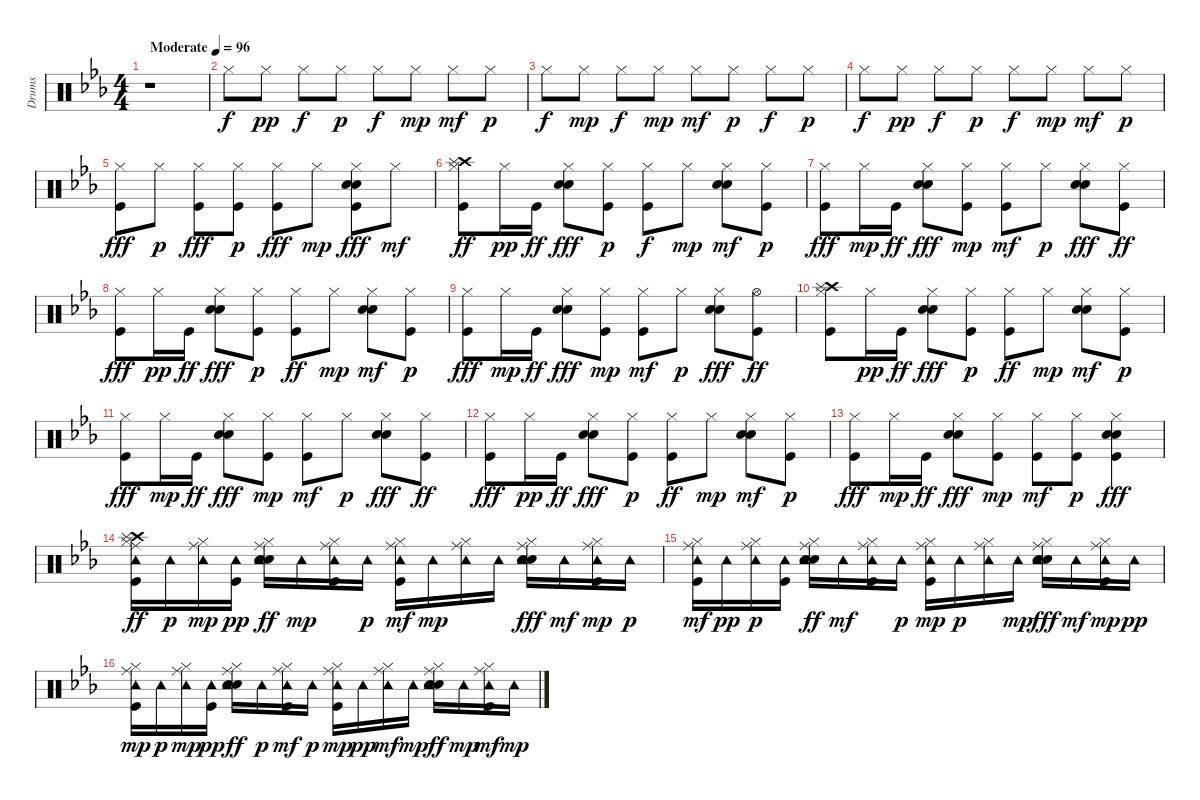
\track ("Drums" "Drums") {instrument percussion}
\staff {score}
\articulation defaults
\ts (4 4)
\tempo (96 "Moderate")
\clef neutral
\ks eb
r.1{dy f} |
"Hi-Hat (closed)".8 "Hi-Hat (closed)".8{dy pp} "Hi-Hat (closed)".8{dy f} "Hi-Hat (closed)".8{dy p} "Hi-Hat (closed)".8{dy f} "Hi-Hat (closed)".8{dy mp} "Hi-Hat (closed)".8{dy mf} "Hi-Hat (closed)".8{dy p} |
"Hi-Hat (closed)".8{dy f} "Hi-Hat (closed)".8{dy mp} "Hi-Hat (closed)".8{dy f} "Hi-Hat (closed)".8{dy mp} "Hi-Hat (closed)".8{dy mf} "Hi-Hat (closed)".8{dy p} "Hi-Hat (closed)".8{dy f} "Hi-Hat (closed)".8{dy p} |
"Hi-Hat (closed)".8{dy f} "Hi-Hat (closed)".8{dy pp} "Hi-Hat (closed)".8{dy f} "Hi-Hat (closed)".8{dy p} "Hi-Hat (closed)".8{dy f} "Hi-Hat (closed)".8{dy mp} "Hi-Hat (closed)".8{dy mf} "Hi-Hat (closed)".8{dy p} |
("Kick (hit)" "Hi-Hat (closed)").8{dy fff} "Hi-Hat (closed)".8{dy p} ("Kick (hit)" "Hi-Hat (closed)").8{dy fff} ("Kick (hit)" "Hi-Hat (closed)").8{dy p} ("Kick (hit)" "Hi-Hat (closed)").8{dy fff} "Hi-Hat (closed)".8{dy mp} ("Kick (hit)" "Snare (hit) 2" "Hand Clap (hit)" "Hi-Hat (closed)").8{dy fff} "Hi-Hat (closed)".8{dy mf} |
("Kick (hit)" "Hi-Hat (closed)" "Crash high (hit)" "Splash (hit)").8{dy ff} "Hi-Hat (closed)".16{dy pp} "Kick (hit)".16{dy ff} ("Snare (hit) 2" "Hand Clap (hit)" "Hi-Hat (closed)").8{dy fff} ("Kick (hit)" "Hi-Hat (closed)").8{dy p} ("Kick (hit)" "Hi-Hat (closed)").8{dy f} "Hi-Hat (closed)".8{dy mp} ("Snare (hit) 2" "Hand Clap (hit)" "Hi-Hat (closed)").8{dy mf} ("Kick (hit)" "Hi-Hat (closed)").8{dy p} |
("Kick (hit)" "Hi-Hat (closed)").8{dy fff} "Hi-Hat (closed)".16{dy mp} "Kick (hit)".16{dy ff} ("Snare (hit) 2" "Hand Clap (hit)" "Hi-Hat (closed)").8{dy fff} ("Kick (hit)" "Hi-Hat (closed)").8{dy mp} ("Kick (hit)" "Hi-Hat (closed)").8{dy mf} "Hi-Hat (closed)".8{dy p} ("Snare (hit) 2" "Hand Clap (hit)" "Hi-Hat (closed)").8{dy fff} ("Kick (hit)" "Hi-Hat (closed)").8{dy ff} |
("Kick (hit)" "Hi-Hat (closed)").8{dy fff} "Hi-Hat (closed)".16{dy pp} "Kick (hit)".16{dy ff} ("Snare (hit) 2" "Hand Clap (hit)" "Hi-Hat (closed)").8{dy fff} ("Kick (hit)" "Hi-Hat (closed)").8{dy p} ("Kick (hit)" "Hi-Hat (closed)").8{dy ff} "Hi-Hat (closed)".8{dy mp} ("Snare (hit) 2" "Hand Clap (hit)" "Hi-Hat (closed)").8{dy mf} ("Kick (hit)" "Hi-Hat (closed)").8{dy p} |
("Kick (hit)" "Hi-Hat (closed)").8{dy fff} "Hi-Hat (closed)".16{dy mp} "Kick (hit)".16{dy ff} ("Snare (hit) 2" "Hand Clap (hit)" "Hi-Hat (closed)").8{dy fff} ("Kick (hit)" "Hi-Hat (closed)").8{dy mp} ("Kick (hit)" "Hi-Hat (closed)").8{dy mf} "Hi-Hat (closed)".8{dy p} ("Snare (hit) 2" "Hand Clap (hit)" "Hi-Hat (closed)").8{dy fff} ("Kick (hit)" "Hi-Hat (open)").8{dy ff} |
("Kick (hit)" "Hi-Hat (closed)" "Crash high (hit)" "Splash (hit)").8 "Hi-Hat (closed)".16{dy pp} "Kick (hit)".16{dy ff} ("Snare (hit) 2" "Hand Clap (hit)" "Hi-Hat (closed)").8{dy fff} ("Kick (hit)" "Hi-Hat (closed)").8{dy p} ("Kick (hit)" "Hi-Hat (closed)").8{dy ff} "Hi-Hat (closed)".8{dy mp} ("Snare (hit) 2" "Hand Clap (hit)" "Hi-Hat (closed)").8{dy mf} ("Kick (hit)" "Hi-Hat (closed)").8{dy p} |
("Kick (hit)" "Hi-Hat (closed)").8{dy fff} "Hi-Hat (closed)".16{dy mp} "Kick (hit)".16{dy ff} ("Snare (hit) 2" "Hand Clap (hit)" "Hi-Hat (closed)").8{dy fff} ("Kick (hit)" "Hi-Hat (closed)").8{dy mp} ("Kick (hit)" "Hi-Hat (closed)").8{dy mf} "Hi-Hat (closed)".8{dy p} ("Snare (hit) 2" "Hand Clap (hit)" "Hi-Hat (closed)").8{dy fff} ("Kick (hit)" "Hi-Hat (closed)").8{dy ff} |
("Kick (hit)" "Hi-Hat (closed)").8{dy fff} "Hi-Hat (closed)".16{dy pp} "Kick (hit)".16{dy ff} ("Snare (hit) 2" "Hand Clap (hit)" "Hi-Hat (closed)").8{dy fff} ("Kick (hit)" "Hi-Hat (closed)").8{dy p} ("Kick (hit)" "Hi-Hat (closed)").8{dy ff} "Hi-Hat (closed)".8{dy mp} ("Snare (hit) 2" "Hand Clap (hit)" "Hi-Hat (closed)").8{dy mf} ("Kick (hit)" "Hi-Hat (closed)").8{dy p} |
("Kick (hit)" "Hi-Hat (closed)").8{dy fff} "Hi-Hat (closed)".16{dy mp} "Kick (hit)".16{dy ff} ("Snare (hit) 2" "Hand Clap (hit)" "Hi-Hat (closed)").8{dy fff} ("Kick (hit)" "Hi-Hat (closed)").8{dy mp} ("Kick (hit)" "Hi-Hat (closed)").8{dy mf} ("Kick (hit)" "Hi-Hat (closed)").8{dy p} ("Kick (hit)" "Snare (hit) 2" "Hand Clap (hit)" "Hi-Hat (closed)").4{dy fff} |
("Kick (hit)" "Hi-Hat (closed)" "Crash high (hit)" "Ride (middle)" "Tambourine (hit)" "Splash (hit)").16{dy ff} "Tambourine (hit)".16{dy p} ("Hi-Hat (closed)" "Ride (middle)" "Tambourine (hit)").16{dy mp} ("Kick (hit)" "Tambourine (hit)").16{dy pp} ("Snare (hit) 2" "Hand Clap (hit)" "Hi-Hat (closed)" "Ride (middle)" "Tambourine (hit)").16{dy ff} "Tambourine (hit)".16{dy mp} ("Kick (hit)" "Hi-Hat (closed)" "Ride (middle)" "Tambourine (hit)").16 "Tambourine (hit)".16{dy p} ("Kick (hit)" "Hi-Hat (closed)" "Ride (middle)" "Tambourine (hit)").16{dy mf} "Tambourine (hit)".16{dy mp} ("Hi-Hat (closed)" "Ride (middle)" "Tambourine (hit)").16 "Tambourine (hit)".16 ("Snare (hit) 2" "Hand Clap (hit)" "Hi-Hat (closed)" "Ride (middle)" "Tambourine (hit)").16{dy fff} "Tambourine (hit)".16{dy mf} ("Kick (hit)" "Hi-Hat (closed)" "Ride (middle)" "Tambourine (hit)").16{dy mp} "Tambourine (hit)".16{dy p} |
("Kick (hit)" "Hi-Hat (closed)" "Ride (middle)" "Tambourine (hit)").16{dy mf} "Tambourine (hit)".16{dy pp} ("Hi-Hat (closed)" "Ride (middle)" "Tambourine (hit)").16{dy p} ("Kick (hit)" "Tambourine (hit)").16 ("Snare (hit) 2" "Hand Clap (hit)" "Hi-Hat (closed)" "Ride (middle)" "Tambourine (hit)").16{dy ff} "Tambourine (hit)".16{dy mf} ("Kick (hit)" "Hi-Hat (closed)" "Ride (middle)" "Tambourine (hit)").16 "Tambourine (hit)".16{dy p} ("Kick (hit)" "Hi-Hat (closed)" "Ride (middle)" "Tambourine (hit)").16{dy mp} "Tambourine (hit)".16{dy p} ("Hi-Hat (closed)" "Ride (middle)" "Tambourine (hit)").16 "Tambourine (hit)".16{dy mp} ("Snare (hit) 2" "Hand Clap (hit)" "Hi-Hat (closed)" "Ride (middle)" "Tambourine (hit)").16{dy fff} "Tambourine (hit)".16{dy mf} ("Kick (hit)" "Hi-Hat (closed)" "Ride (middle)" "Tambourine (hit)").16{dy mp} "Tambourine (hit)".16{dy pp} |
("Kick (hit)" "Hi-Hat (closed)" "Ride (middle)" "Tambourine (hit)").16{dy mp} "Tambourine (hit)".16{dy p} ("Hi-Hat (closed)" "Ride (middle)" "Tambourine (hit)").16{dy mp} ("Kick (hit)" "Tambourine (hit)").16{dy pp} ("Snare (hit) 2" "Hand Clap (hit)" "Hi-Hat (closed)" "Ride (middle)" "Tambourine (hit)").16{dy ff} "Tambourine (hit)".16{dy p} ("Kick (hit)" "Hi-Hat (closed)" "Ride (middle)" "Tambourine (hit)").16{dy mf} "Tambourine (hit)".16{dy p} ("Kick (hit)" "Hi-Hat (closed)" "Ride (middle)" "Tambourine (hit)").16{dy mp} "Tambourine (hit)".16{dy pp} ("Hi-Hat (closed)" "Ride (middle)" "Tambourine (hit)").16{dy mf} "Tambourine (hit)".16{dy mp} ("Snare (hit) 2" "Hand Clap (hit)" "Hi-Hat (closed)" "Ride (middle)" "Tambourine (hit)").16{dy ff} "Tambourine (hit)".16{dy mp} ("Kick (hit)" "Hi-Hat (closed)" "Ride (middle)" "Tambourine (hit)").16{dy mf} "Tambourine (hit)".16{dy mp}
